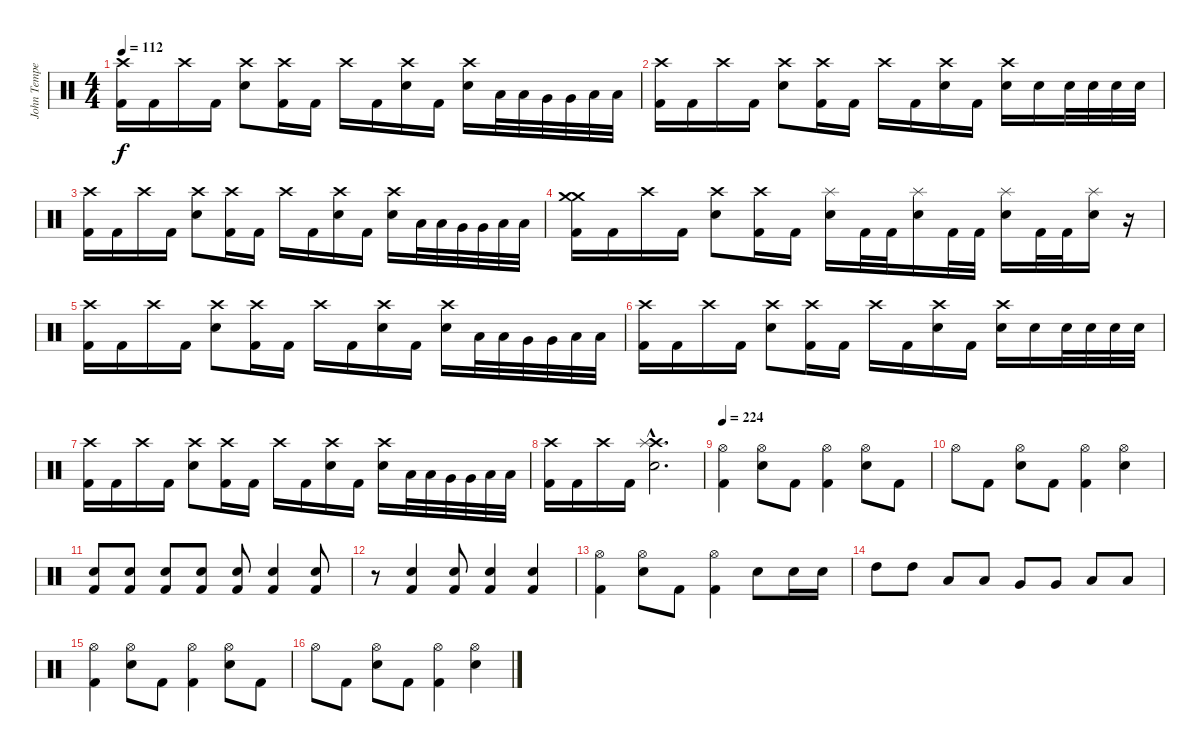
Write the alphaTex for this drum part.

\track ("John Tempesta" "John Tempe") {instrument percussion}
\staff {score}
\articulation defaults
\ts (4 4)
\tempo 112
\clef neutral
\ks c
("Crash high (hit)" "Kick (hit) 2").16{dy f} "Kick (hit) 2".16 "Crash high (hit)".16 "Kick (hit) 2".16 ("Crash high (hit)" "Electric Snare (hit)").8 ("Crash high (hit)" "Kick (hit) 2").16 "Kick (hit) 2".16 "Crash high (hit)".16 "Kick (hit) 2".16 ("Crash high (hit)" "Electric Snare (hit)").16 "Kick (hit) 2".16 ("Crash high (hit)" "Electric Snare (hit)").16 "Low Tom (hit)".32 "Low Tom (hit)".32 "Very Low Tom (hit)".32 "Very Low Tom (hit)".32 "Low Floor Tom (hit)".32 "Low Floor Tom (hit)".32 |
("Crash high (hit)" "Kick (hit) 2").16 "Kick (hit) 2".16 "Crash high (hit)".16 "Kick (hit) 2".16 ("Crash high (hit)" "Electric Snare (hit)").8 ("Crash high (hit)" "Kick (hit) 2").16 "Kick (hit) 2".16 "Crash high (hit)".16 "Kick (hit) 2".16 ("Crash high (hit)" "Electric Snare (hit)").16 "Kick (hit) 2".16 ("Crash high (hit)" "Electric Snare (hit)").16 "Electric Snare (hit)".16 "Electric Snare (hit)".32 "Electric Snare (hit)".32 "Electric Snare (hit)".32 "Electric Snare (hit)".32 |
("Crash high (hit)" "Kick (hit) 2").16 "Kick (hit) 2".16 "Crash high (hit)".16 "Kick (hit) 2".16 ("Crash high (hit)" "Electric Snare (hit)").8 ("Crash high (hit)" "Kick (hit) 2").16 "Kick (hit) 2".16 "Crash high (hit)".16 "Kick (hit) 2".16 ("Crash high (hit)" "Electric Snare (hit)").16 "Kick (hit) 2".16 ("Crash high (hit)" "Electric Snare (hit)").16 "Low Tom (hit)".32 "Low Tom (hit)".32 "Very Low Tom (hit)".32 "Very Low Tom (hit)".32 "Low Floor Tom (hit)".32 "Low Floor Tom (hit)".32 |
("Crash medium (hit)" "Crash medium (hit)" "Kick (hit) 2").16 "Kick (hit) 2".16 "Crash high (hit)".16 "Kick (hit) 2".16 ("Crash high (hit)" "Electric Snare (hit)").8 ("Crash high (hit)" "Kick (hit) 2").16 "Kick (hit) 2".16 ("Splash (hit)" "Electric Snare (hit)").16 "Kick (hit) 2".32 "Kick (hit) 2".32 ("Splash (hit)" "Electric Snare (hit)").16 "Kick (hit) 2".32 "Kick (hit) 2".32 ("Splash (hit)" "Electric Snare (hit)").16 "Kick (hit) 2".32 "Kick (hit) 2".32 ("Splash (hit)" "Electric Snare (hit)").16 r.16 |
("Crash high (hit)" "Kick (hit) 2").16 "Kick (hit) 2".16 "Crash high (hit)".16 "Kick (hit) 2".16 ("Crash high (hit)" "Electric Snare (hit)").8 ("Crash high (hit)" "Kick (hit) 2").16 "Kick (hit) 2".16 "Crash high (hit)".16 "Kick (hit) 2".16 ("Crash high (hit)" "Electric Snare (hit)").16 "Kick (hit) 2".16 ("Crash high (hit)" "Electric Snare (hit)").16 "Low Tom (hit)".32 "Low Tom (hit)".32 "Very Low Tom (hit)".32 "Very Low Tom (hit)".32 "Low Floor Tom (hit)".32 "Low Floor Tom (hit)".32 |
("Crash high (hit)" "Kick (hit) 2").16 "Kick (hit) 2".16 "Crash high (hit)".16 "Kick (hit) 2".16 ("Crash high (hit)" "Electric Snare (hit)").8 ("Crash high (hit)" "Kick (hit) 2").16 "Kick (hit) 2".16 "Crash high (hit)".16 "Kick (hit) 2".16 ("Crash high (hit)" "Electric Snare (hit)").16 "Kick (hit) 2".16 ("Crash high (hit)" "Electric Snare (hit)").16 "Electric Snare (hit)".16 "Electric Snare (hit)".32 "Electric Snare (hit)".32 "Electric Snare (hit)".32 "Electric Snare (hit)".32 |
("Crash high (hit)" "Kick (hit) 2").16 "Kick (hit) 2".16 "Crash high (hit)".16 "Kick (hit) 2".16 ("Crash high (hit)" "Electric Snare (hit)").8 ("Crash high (hit)" "Kick (hit) 2").16 "Kick (hit) 2".16 "Crash high (hit)".16 "Kick (hit) 2".16 ("Crash high (hit)" "Electric Snare (hit)").16 "Kick (hit) 2".16 ("Crash high (hit)" "Electric Snare (hit)").16 "Low Tom (hit)".32 "Low Tom (hit)".32 "Very Low Tom (hit)".32 "Very Low Tom (hit)".32 "Low Floor Tom (hit)".32 "Low Floor Tom (hit)".32 |
("Crash high (hit)" "Kick (hit) 2").16 "Kick (hit) 2".16 "Crash high (hit)".16 "Kick (hit) 2".16 ("Crash high (hit)"{hac} "Splash (hit)"{hac} "Electric Snare (hit)"{hac}).2{d} |
\tempo 224
("Hi-Hat (open)" "Kick (hit) 2").4 ("Hi-Hat (open)" "Electric Snare (hit)").8 "Kick (hit) 2".8 ("Hi-Hat (open)" "Kick (hit) 2").4 ("Hi-Hat (open)" "Electric Snare (hit)").8 "Kick (hit) 2".8 |
"Hi-Hat (open)".8 "Kick (hit) 2".8 ("Hi-Hat (open)" "Electric Snare (hit)").8 "Kick (hit) 2".8 ("Hi-Hat (open)" "Kick (hit) 2").4 ("Hi-Hat (open)" "Electric Snare (hit)").4 |
("Electric Snare (hit)" "Kick (hit) 2").8 ("Electric Snare (hit)" "Kick (hit) 2").8 ("Electric Snare (hit)" "Kick (hit) 2").8 ("Electric Snare (hit)" "Kick (hit) 2").8 ("Electric Snare (hit)" "Kick (hit) 2").8 ("Electric Snare (hit)" "Kick (hit) 2").4 ("Electric Snare (hit)" "Kick (hit) 2").8 |
r.8 ("Electric Snare (hit)" "Kick (hit) 2").4 ("Electric Snare (hit)" "Kick (hit) 2").8 ("Electric Snare (hit)" "Kick (hit) 2").4 ("Electric Snare (hit)" "Kick (hit) 2").4 |
("Hi-Hat (open)" "Kick (hit) 2").4 ("Hi-Hat (open)" "Electric Snare (hit)").8 "Kick (hit) 2".8 ("Hi-Hat (open)" "Kick (hit) 2").4 "Electric Snare (hit)".8 "Electric Snare (hit)".16 "Electric Snare (hit)".16 |
"High Tom (hit)".8 "High Tom (hit)".8 "Low Tom (hit)".8 "Low Tom (hit)".8 "Very Low Tom (hit)".8 "Very Low Tom (hit)".8 "Low Floor Tom (hit)".8 "Low Floor Tom (hit)".8 |
("Hi-Hat (open)" "Kick (hit) 2").4 ("Hi-Hat (open)" "Electric Snare (hit)").8 "Kick (hit) 2".8 ("Hi-Hat (open)" "Kick (hit) 2").4 ("Hi-Hat (open)" "Electric Snare (hit)").8 "Kick (hit) 2".8 |
"Hi-Hat (open)".8 "Kick (hit) 2".8 ("Hi-Hat (open)" "Electric Snare (hit)").8 "Kick (hit) 2".8 ("Hi-Hat (open)" "Kick (hit) 2").4 ("Hi-Hat (open)" "Electric Snare (hit)").4
